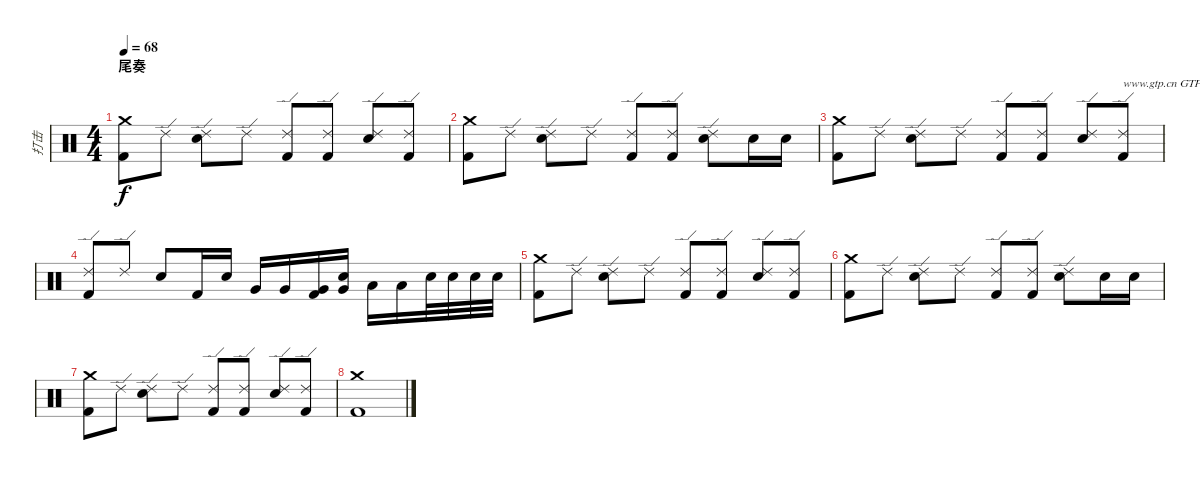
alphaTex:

\track ("打击" "打击") {instrument percussion}
\staff {score}
\articulation defaults
\ts (4 4)
\section ("" "尾奏")
\tempo 68
\clef neutral
\ks c
("Kick (hit) 2" "Crash medium (hit)").8{dy f} "Ride (edge) 2".8 ("Electric Snare (hit)" "Ride (edge) 2").8 "Ride (edge) 2".8 ("Kick (hit) 2" "Ride (edge) 2").8 ("Kick (hit) 2" "Ride (edge) 2").8 ("Electric Snare (hit)" "Ride (edge) 2").8 ("Kick (hit) 2" "Ride (edge) 2").8 |
("Kick (hit) 2" "Crash medium (hit)").8 "Ride (edge) 2".8 ("Electric Snare (hit)" "Ride (edge) 2").8 "Ride (edge) 2".8 ("Kick (hit) 2" "Ride (edge) 2").8 ("Kick (hit) 2" "Ride (edge) 2").8 ("Electric Snare (hit)" "Ride (edge) 2").8 "Electric Snare (hit)".16 "Electric Snare (hit)".16 |
("Kick (hit) 2" "Crash medium (hit)").8 "Ride (edge) 2".8 ("Electric Snare (hit)" "Ride (edge) 2").8 "Ride (edge) 2".8 ("Kick (hit) 2" "Ride (edge) 2").8 ("Kick (hit) 2" "Ride (edge) 2").8 ("Electric Snare (hit)" "Ride (edge) 2").8 ("Kick (hit) 2" "Ride (edge) 2").8{txt "www.gtp.cn GTP中文娱乐网为您提供优秀的谱子"} |
("Kick (hit) 2" "Ride (edge) 2").8 "Ride (edge) 2".8 "Electric Snare (hit)".8 "Kick (hit) 2".16 "Electric Snare (hit)".16 "Very Low Tom (hit)".16 "Very Low Tom (hit)".16 ("Kick (hit) 2" "Very Low Tom (hit)").16 ("Electric Snare (hit)" "Very Low Tom (hit)").16 "Low Tom (hit)".16 "Low Tom (hit)".16 "Electric Snare (hit)".32 "Electric Snare (hit)".32 "Electric Snare (hit)".32 "Electric Snare (hit)".32 |
("Kick (hit) 2" "Crash medium (hit)").8 "Ride (edge) 2".8 ("Electric Snare (hit)" "Ride (edge) 2").8 "Ride (edge) 2".8 ("Kick (hit) 2" "Ride (edge) 2").8 ("Kick (hit) 2" "Ride (edge) 2").8 ("Electric Snare (hit)" "Ride (edge) 2").8 ("Kick (hit) 2" "Ride (edge) 2").8 |
("Kick (hit) 2" "Crash medium (hit)").8 "Ride (edge) 2".8 ("Electric Snare (hit)" "Ride (edge) 2").8 "Ride (edge) 2".8 ("Kick (hit) 2" "Ride (edge) 2").8 ("Kick (hit) 2" "Ride (edge) 2").8 ("Electric Snare (hit)" "Ride (edge) 2").8 "Electric Snare (hit)".16 "Electric Snare (hit)".16 |
("Kick (hit) 2" "Crash medium (hit)").8 "Ride (edge) 2".8 ("Electric Snare (hit)" "Ride (edge) 2").8 "Ride (edge) 2".8 ("Kick (hit) 2" "Ride (edge) 2").8 ("Kick (hit) 2" "Ride (edge) 2").8 ("Electric Snare (hit)" "Ride (edge) 2").8 ("Kick (hit) 2" "Ride (edge) 2").8 |
("Kick (hit) 2" "Crash medium (hit)").1
